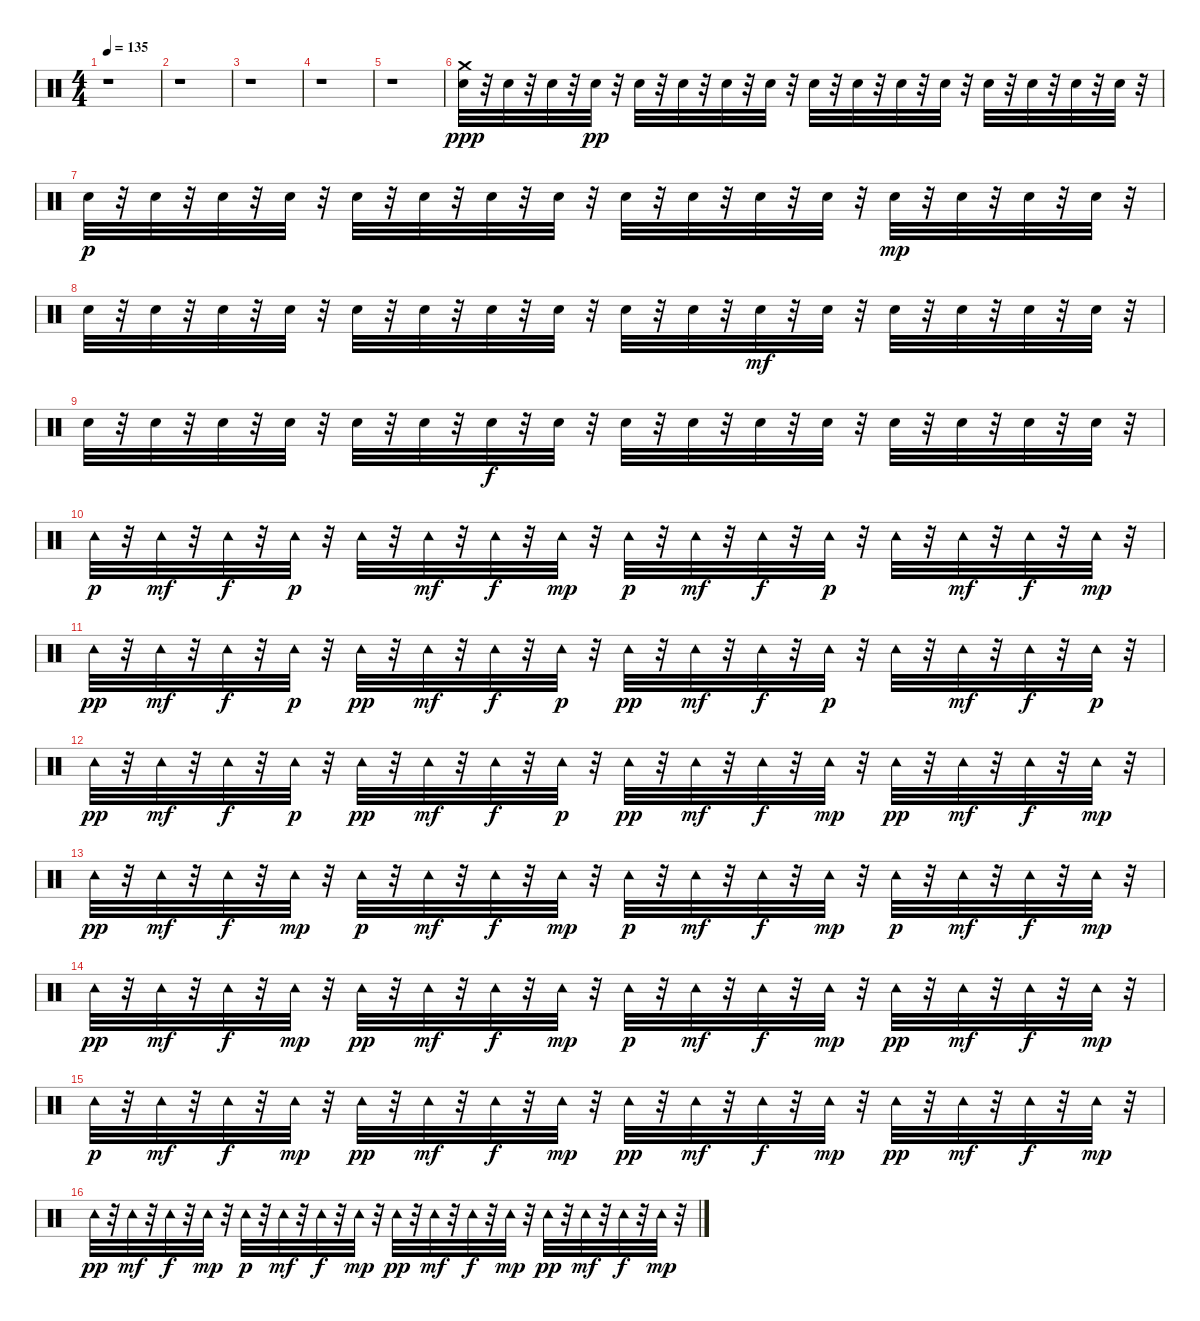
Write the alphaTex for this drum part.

\track "" {instrument percussion}
\staff {score}
\articulation defaults
\ts (4 4)
\tempo 135
\clef neutral
\ks c
r.1{dy ppp} |
r.1 |
r.1 |
r.1 |
r.1 |
("Crash medium (hit)" "Snare (hit) 2").32 r.32 "Snare (hit) 2".32 r.32 "Snare (hit) 2".32 r.32 "Snare (hit) 2".32{dy pp} r.32 "Snare (hit) 2".32 r.32 "Snare (hit) 2".32 r.32 "Snare (hit) 2".32 r.32 "Snare (hit) 2".32 r.32 "Snare (hit) 2".32 r.32 "Snare (hit) 2".32 r.32 "Snare (hit) 2".32 r.32 "Snare (hit) 2".32 r.32 "Snare (hit) 2".32 r.32 "Snare (hit) 2".32 r.32 "Snare (hit) 2".32 r.32 "Snare (hit) 2".32 r.32 |
"Snare (hit) 2".32{dy p} r.32 "Snare (hit) 2".32 r.32 "Snare (hit) 2".32 r.32 "Snare (hit) 2".32 r.32 "Snare (hit) 2".32 r.32 "Snare (hit) 2".32 r.32 "Snare (hit) 2".32 r.32 "Snare (hit) 2".32 r.32 "Snare (hit) 2".32 r.32 "Snare (hit) 2".32 r.32 "Snare (hit) 2".32 r.32 "Snare (hit) 2".32 r.32 "Snare (hit) 2".32{dy mp} r.32 "Snare (hit) 2".32 r.32 "Snare (hit) 2".32 r.32 "Snare (hit) 2".32 r.32 |
"Snare (hit) 2".32 r.32 "Snare (hit) 2".32 r.32 "Snare (hit) 2".32 r.32 "Snare (hit) 2".32 r.32 "Snare (hit) 2".32 r.32 "Snare (hit) 2".32 r.32 "Snare (hit) 2".32 r.32 "Snare (hit) 2".32 r.32 "Snare (hit) 2".32 r.32 "Snare (hit) 2".32 r.32 "Snare (hit) 2".32{dy mf} r.32 "Snare (hit) 2".32 r.32 "Snare (hit) 2".32 r.32 "Snare (hit) 2".32 r.32 "Snare (hit) 2".32 r.32 "Snare (hit) 2".32 r.32 |
"Snare (hit) 2".32 r.32 "Snare (hit) 2".32 r.32 "Snare (hit) 2".32 r.32 "Snare (hit) 2".32 r.32 "Snare (hit) 2".32 r.32 "Snare (hit) 2".32 r.32 "Snare (hit) 2".32{dy f} r.32 "Snare (hit) 2".32 r.32 "Snare (hit) 2".32 r.32 "Snare (hit) 2".32 r.32 "Snare (hit) 2".32 r.32 "Snare (hit) 2".32 r.32 "Snare (hit) 2".32 r.32 "Snare (hit) 2".32 r.32 "Snare (hit) 2".32 r.32 "Snare (hit) 2".32 r.32 |
"Tambourine (hit)".32{dy p} r.32 "Tambourine (hit)".32{dy mf} r.32 "Tambourine (hit)".32{dy f} r.32 "Tambourine (hit)".32{dy p} r.32 "Tambourine (hit)".32 r.32 "Tambourine (hit)".32{dy mf} r.32 "Tambourine (hit)".32{dy f} r.32 "Tambourine (hit)".32{dy mp} r.32 "Tambourine (hit)".32{dy p} r.32 "Tambourine (hit)".32{dy mf} r.32 "Tambourine (hit)".32{dy f} r.32 "Tambourine (hit)".32{dy p} r.32 "Tambourine (hit)".32 r.32 "Tambourine (hit)".32{dy mf} r.32 "Tambourine (hit)".32{dy f} r.32 "Tambourine (hit)".32{dy mp} r.32 |
"Tambourine (hit)".32{dy pp} r.32 "Tambourine (hit)".32{dy mf} r.32 "Tambourine (hit)".32{dy f} r.32 "Tambourine (hit)".32{dy p} r.32 "Tambourine (hit)".32{dy pp} r.32 "Tambourine (hit)".32{dy mf} r.32 "Tambourine (hit)".32{dy f} r.32 "Tambourine (hit)".32{dy p} r.32 "Tambourine (hit)".32{dy pp} r.32 "Tambourine (hit)".32{dy mf} r.32 "Tambourine (hit)".32{dy f} r.32 "Tambourine (hit)".32{dy p} r.32 "Tambourine (hit)".32 r.32 "Tambourine (hit)".32{dy mf} r.32 "Tambourine (hit)".32{dy f} r.32 "Tambourine (hit)".32{dy p} r.32 |
"Tambourine (hit)".32{dy pp} r.32 "Tambourine (hit)".32{dy mf} r.32 "Tambourine (hit)".32{dy f} r.32 "Tambourine (hit)".32{dy p} r.32 "Tambourine (hit)".32{dy pp} r.32 "Tambourine (hit)".32{dy mf} r.32 "Tambourine (hit)".32{dy f} r.32 "Tambourine (hit)".32{dy p} r.32 "Tambourine (hit)".32{dy pp} r.32 "Tambourine (hit)".32{dy mf} r.32 "Tambourine (hit)".32{dy f} r.32 "Tambourine (hit)".32{dy mp} r.32 "Tambourine (hit)".32{dy pp} r.32 "Tambourine (hit)".32{dy mf} r.32 "Tambourine (hit)".32{dy f} r.32 "Tambourine (hit)".32{dy mp} r.32 |
"Tambourine (hit)".32{dy pp} r.32 "Tambourine (hit)".32{dy mf} r.32 "Tambourine (hit)".32{dy f} r.32 "Tambourine (hit)".32{dy mp} r.32 "Tambourine (hit)".32{dy p} r.32 "Tambourine (hit)".32{dy mf} r.32 "Tambourine (hit)".32{dy f} r.32 "Tambourine (hit)".32{dy mp} r.32 "Tambourine (hit)".32{dy p} r.32 "Tambourine (hit)".32{dy mf} r.32 "Tambourine (hit)".32{dy f} r.32 "Tambourine (hit)".32{dy mp} r.32 "Tambourine (hit)".32{dy p} r.32 "Tambourine (hit)".32{dy mf} r.32 "Tambourine (hit)".32{dy f} r.32 "Tambourine (hit)".32{dy mp} r.32 |
"Tambourine (hit)".32{dy pp} r.32 "Tambourine (hit)".32{dy mf} r.32 "Tambourine (hit)".32{dy f} r.32 "Tambourine (hit)".32{dy mp} r.32 "Tambourine (hit)".32{dy pp} r.32 "Tambourine (hit)".32{dy mf} r.32 "Tambourine (hit)".32{dy f} r.32 "Tambourine (hit)".32{dy mp} r.32 "Tambourine (hit)".32{dy p} r.32 "Tambourine (hit)".32{dy mf} r.32 "Tambourine (hit)".32{dy f} r.32 "Tambourine (hit)".32{dy mp} r.32 "Tambourine (hit)".32{dy pp} r.32 "Tambourine (hit)".32{dy mf} r.32 "Tambourine (hit)".32{dy f} r.32 "Tambourine (hit)".32{dy mp} r.32 |
"Tambourine (hit)".32{dy p} r.32 "Tambourine (hit)".32{dy mf} r.32 "Tambourine (hit)".32{dy f} r.32 "Tambourine (hit)".32{dy mp} r.32 "Tambourine (hit)".32{dy pp} r.32 "Tambourine (hit)".32{dy mf} r.32 "Tambourine (hit)".32{dy f} r.32 "Tambourine (hit)".32{dy mp} r.32 "Tambourine (hit)".32{dy pp} r.32 "Tambourine (hit)".32{dy mf} r.32 "Tambourine (hit)".32{dy f} r.32 "Tambourine (hit)".32{dy mp} r.32 "Tambourine (hit)".32{dy pp} r.32 "Tambourine (hit)".32{dy mf} r.32 "Tambourine (hit)".32{dy f} r.32 "Tambourine (hit)".32{dy mp} r.32 |
"Tambourine (hit)".32{dy pp} r.32 "Tambourine (hit)".32{dy mf} r.32 "Tambourine (hit)".32{dy f} r.32 "Tambourine (hit)".32{dy mp} r.32 "Tambourine (hit)".32{dy p} r.32 "Tambourine (hit)".32{dy mf} r.32 "Tambourine (hit)".32{dy f} r.32 "Tambourine (hit)".32{dy mp} r.32 "Tambourine (hit)".32{dy pp} r.32 "Tambourine (hit)".32{dy mf} r.32 "Tambourine (hit)".32{dy f} r.32 "Tambourine (hit)".32{dy mp} r.32 "Tambourine (hit)".32{dy pp} r.32 "Tambourine (hit)".32{dy mf} r.32 "Tambourine (hit)".32{dy f} r.32 "Tambourine (hit)".32{dy mp} r.32
